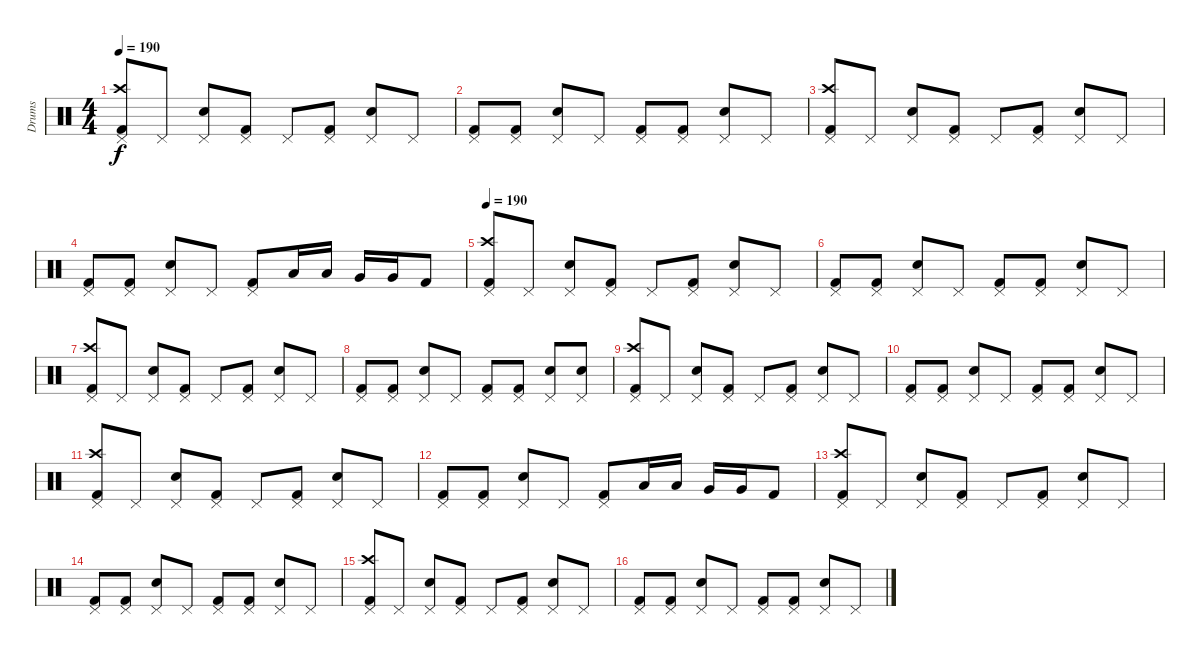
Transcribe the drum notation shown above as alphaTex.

\track ("Drums" "Drums") {instrument percussion}
\staff {score}
\articulation defaults
\ts (4 4)
\tempo 190
\clef neutral
\ks c
("Pedal Hi-Hat (hit)" "Crash high (hit)" "Kick (hit) 2").8{dy f} "Pedal Hi-Hat (hit)".8 ("Pedal Hi-Hat (hit)" "Snare (hit) 2").8 ("Pedal Hi-Hat (hit)" "Kick (hit) 2").8 "Pedal Hi-Hat (hit)".8 ("Pedal Hi-Hat (hit)" "Kick (hit) 2").8 ("Pedal Hi-Hat (hit)" "Snare (hit) 2").8 "Pedal Hi-Hat (hit)".8 |
("Pedal Hi-Hat (hit)" "Kick (hit) 2").8 ("Pedal Hi-Hat (hit)" "Kick (hit) 2").8 ("Pedal Hi-Hat (hit)" "Snare (hit) 2").8 "Pedal Hi-Hat (hit)".8 ("Pedal Hi-Hat (hit)" "Kick (hit) 2").8 ("Pedal Hi-Hat (hit)" "Kick (hit) 2").8 ("Pedal Hi-Hat (hit)" "Snare (hit) 2").8 "Pedal Hi-Hat (hit)".8 |
("Pedal Hi-Hat (hit)" "Crash high (hit)" "Kick (hit) 2").8 "Pedal Hi-Hat (hit)".8 ("Pedal Hi-Hat (hit)" "Snare (hit) 2").8 ("Pedal Hi-Hat (hit)" "Kick (hit) 2").8 "Pedal Hi-Hat (hit)".8 ("Pedal Hi-Hat (hit)" "Kick (hit) 2").8 ("Pedal Hi-Hat (hit)" "Snare (hit) 2").8 "Pedal Hi-Hat (hit)".8 |
("Pedal Hi-Hat (hit)" "Kick (hit) 2").8 ("Pedal Hi-Hat (hit)" "Kick (hit) 2").8 ("Pedal Hi-Hat (hit)" "Snare (hit) 2").8 "Pedal Hi-Hat (hit)".8 ("Pedal Hi-Hat (hit)" "Kick (hit) 2").8 "Low Tom (hit)".16 "Low Tom (hit)".16 "Very Low Tom (hit)".16 "Very Low Tom (hit)".16 "Kick (hit) 2".8 |
\tempo 190
("Pedal Hi-Hat (hit)" "Crash high (hit)" "Kick (hit) 2").8 "Pedal Hi-Hat (hit)".8 ("Pedal Hi-Hat (hit)" "Snare (hit) 2").8 ("Pedal Hi-Hat (hit)" "Kick (hit) 2").8 "Pedal Hi-Hat (hit)".8 ("Pedal Hi-Hat (hit)" "Kick (hit) 2").8 ("Pedal Hi-Hat (hit)" "Snare (hit) 2").8 "Pedal Hi-Hat (hit)".8 |
("Pedal Hi-Hat (hit)" "Kick (hit) 2").8 ("Pedal Hi-Hat (hit)" "Kick (hit) 2").8 ("Pedal Hi-Hat (hit)" "Snare (hit) 2").8 "Pedal Hi-Hat (hit)".8 ("Pedal Hi-Hat (hit)" "Kick (hit) 2").8 ("Pedal Hi-Hat (hit)" "Kick (hit) 2").8 ("Pedal Hi-Hat (hit)" "Snare (hit) 2").8 "Pedal Hi-Hat (hit)".8 |
("Pedal Hi-Hat (hit)" "Crash high (hit)" "Kick (hit) 2").8 "Pedal Hi-Hat (hit)".8 ("Pedal Hi-Hat (hit)" "Snare (hit) 2").8 ("Pedal Hi-Hat (hit)" "Kick (hit) 2").8 "Pedal Hi-Hat (hit)".8 ("Pedal Hi-Hat (hit)" "Kick (hit) 2").8 ("Pedal Hi-Hat (hit)" "Snare (hit) 2").8 "Pedal Hi-Hat (hit)".8 |
("Pedal Hi-Hat (hit)" "Kick (hit) 2").8 ("Pedal Hi-Hat (hit)" "Kick (hit) 2").8 ("Pedal Hi-Hat (hit)" "Snare (hit) 2").8 "Pedal Hi-Hat (hit)".8 ("Pedal Hi-Hat (hit)" "Kick (hit) 2").8 ("Pedal Hi-Hat (hit)" "Kick (hit) 2").8 ("Pedal Hi-Hat (hit)" "Snare (hit) 2").8 ("Pedal Hi-Hat (hit)" "Snare (hit) 2").8 |
("Pedal Hi-Hat (hit)" "Crash high (hit)" "Kick (hit) 2").8 "Pedal Hi-Hat (hit)".8 ("Pedal Hi-Hat (hit)" "Snare (hit) 2").8 ("Pedal Hi-Hat (hit)" "Kick (hit) 2").8 "Pedal Hi-Hat (hit)".8 ("Pedal Hi-Hat (hit)" "Kick (hit) 2").8 ("Pedal Hi-Hat (hit)" "Snare (hit) 2").8 "Pedal Hi-Hat (hit)".8 |
("Pedal Hi-Hat (hit)" "Kick (hit) 2").8 ("Pedal Hi-Hat (hit)" "Kick (hit) 2").8 ("Pedal Hi-Hat (hit)" "Snare (hit) 2").8 "Pedal Hi-Hat (hit)".8 ("Pedal Hi-Hat (hit)" "Kick (hit) 2").8 ("Pedal Hi-Hat (hit)" "Kick (hit) 2").8 ("Pedal Hi-Hat (hit)" "Snare (hit) 2").8 "Pedal Hi-Hat (hit)".8 |
("Pedal Hi-Hat (hit)" "Crash high (hit)" "Kick (hit) 2").8 "Pedal Hi-Hat (hit)".8 ("Pedal Hi-Hat (hit)" "Snare (hit) 2").8 ("Pedal Hi-Hat (hit)" "Kick (hit) 2").8 "Pedal Hi-Hat (hit)".8 ("Pedal Hi-Hat (hit)" "Kick (hit) 2").8 ("Pedal Hi-Hat (hit)" "Snare (hit) 2").8 "Pedal Hi-Hat (hit)".8 |
("Pedal Hi-Hat (hit)" "Kick (hit) 2").8 ("Pedal Hi-Hat (hit)" "Kick (hit) 2").8 ("Pedal Hi-Hat (hit)" "Snare (hit) 2").8 "Pedal Hi-Hat (hit)".8 ("Pedal Hi-Hat (hit)" "Kick (hit) 2").8 "Low Tom (hit)".16 "Low Tom (hit)".16 "Very Low Tom (hit)".16 "Very Low Tom (hit)".16 "Kick (hit) 2".8 |
("Pedal Hi-Hat (hit)" "Crash high (hit)" "Kick (hit) 2").8 "Pedal Hi-Hat (hit)".8 ("Pedal Hi-Hat (hit)" "Snare (hit) 2").8 ("Pedal Hi-Hat (hit)" "Kick (hit) 2").8 "Pedal Hi-Hat (hit)".8 ("Pedal Hi-Hat (hit)" "Kick (hit) 2").8 ("Pedal Hi-Hat (hit)" "Snare (hit) 2").8 "Pedal Hi-Hat (hit)".8 |
("Pedal Hi-Hat (hit)" "Kick (hit) 2").8 ("Pedal Hi-Hat (hit)" "Kick (hit) 2").8 ("Pedal Hi-Hat (hit)" "Snare (hit) 2").8 "Pedal Hi-Hat (hit)".8 ("Pedal Hi-Hat (hit)" "Kick (hit) 2").8 ("Pedal Hi-Hat (hit)" "Kick (hit) 2").8 ("Pedal Hi-Hat (hit)" "Snare (hit) 2").8 "Pedal Hi-Hat (hit)".8 |
("Pedal Hi-Hat (hit)" "Crash high (hit)" "Kick (hit) 2").8 "Pedal Hi-Hat (hit)".8 ("Pedal Hi-Hat (hit)" "Snare (hit) 2").8 ("Pedal Hi-Hat (hit)" "Kick (hit) 2").8 "Pedal Hi-Hat (hit)".8 ("Pedal Hi-Hat (hit)" "Kick (hit) 2").8 ("Pedal Hi-Hat (hit)" "Snare (hit) 2").8 "Pedal Hi-Hat (hit)".8 |
("Pedal Hi-Hat (hit)" "Kick (hit) 2").8 ("Pedal Hi-Hat (hit)" "Kick (hit) 2").8 ("Pedal Hi-Hat (hit)" "Snare (hit) 2").8 "Pedal Hi-Hat (hit)".8 ("Pedal Hi-Hat (hit)" "Kick (hit) 2").8 ("Pedal Hi-Hat (hit)" "Kick (hit) 2").8 ("Pedal Hi-Hat (hit)" "Snare (hit) 2").8 "Pedal Hi-Hat (hit)".8
